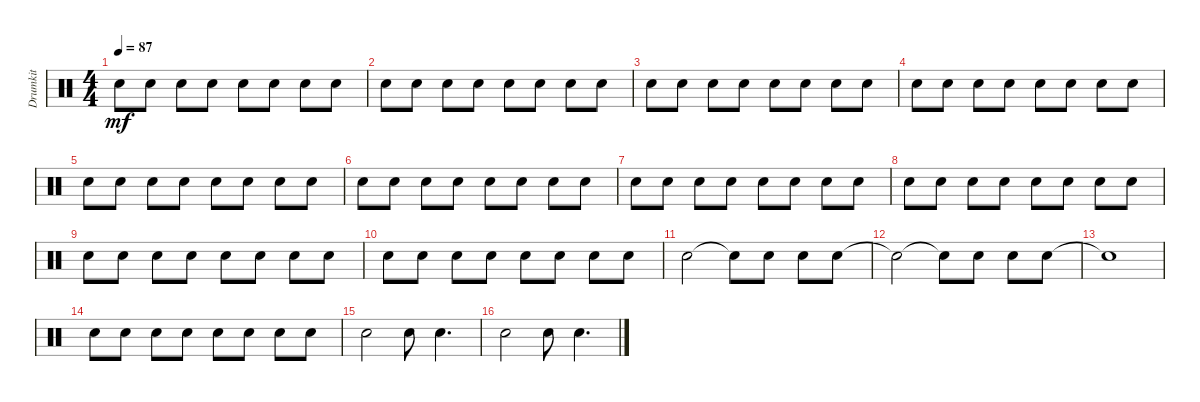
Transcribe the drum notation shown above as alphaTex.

\track ("Drumkit" "Drumkit") {instrument percussion}
\staff {score}
\articulation defaults
\ts (4 4)
\tempo 87
\clef neutral
\ks c "Snare (hit)".8{dy mf} "Snare (hit)".8 "Snare (hit)".8 "Snare (hit)".8 "Snare (hit)".8 "Snare (hit)".8 "Snare (hit)".8 "Snare (hit)".8
|
"Snare (hit)".8 "Snare (hit)".8 "Snare (hit)".8 "Snare (hit)".8 "Snare (hit)".8 "Snare (hit)".8 "Snare (hit)".8 "Snare (hit)".8 |
"Snare (hit)".8 "Snare (hit)".8 "Snare (hit)".8 "Snare (hit)".8 "Snare (hit)".8 "Snare (hit)".8 "Snare (hit)".8 "Snare (hit)".8 |
"Snare (hit)".8 "Snare (hit)".8 "Snare (hit)".8 "Snare (hit)".8 "Snare (hit)".8 "Snare (hit)".8 "Snare (hit)".8 "Snare (hit)".8 |
"Snare (hit)".8 "Snare (hit)".8 "Snare (hit)".8 "Snare (hit)".8 "Snare (hit)".8 "Snare (hit)".8 "Snare (hit)".8 "Snare (hit)".8 |
"Snare (hit)".8 "Snare (hit)".8 "Snare (hit)".8 "Snare (hit)".8 "Snare (hit)".8 "Snare (hit)".8 "Snare (hit)".8 "Snare (hit)".8 |
"Snare (hit)".8 "Snare (hit)".8 "Snare (hit)".8 "Snare (hit)".8 "Snare (hit)".8 "Snare (hit)".8 "Snare (hit)".8 "Snare (hit)".8 |
"Snare (hit)".8 "Snare (hit)".8 "Snare (hit)".8 "Snare (hit)".8 "Snare (hit)".8 "Snare (hit)".8 "Snare (hit)".8 "Snare (hit)".8 |
"Snare (hit)".8 "Snare (hit)".8 "Snare (hit)".8 "Snare (hit)".8 "Snare (hit)".8 "Snare (hit)".8 "Snare (hit)".8 "Snare (hit)".8 |
"Snare (hit)".8 "Snare (hit)".8 "Snare (hit)".8 "Snare (hit)".8 "Snare (hit)".8 "Snare (hit)".8 "Snare (hit)".8 "Snare (hit)".8 |
"Snare (hit)".2 "Snare (hit)"{t}.8 "Snare (hit)".8 "Snare (hit)".8 "Snare (hit)".8 |
"Snare (hit)"{t}.2 "Snare (hit)"{t}.8 "Snare (hit)".8 "Snare (hit)".8 "Snare (hit)".8 |
"Snare (hit)"{t}.1 |
"Snare (hit)".8 "Snare (hit)".8 "Snare (hit)".8 "Snare (hit)".8 "Snare (hit)".8 "Snare (hit)".8 "Snare (hit)".8 "Snare (hit)".8 |
"Snare (hit)".2 "Snare (hit)".8 "Snare (hit)".4{d} |
"Snare (hit)".2 "Snare (hit)".8 "Snare (hit)".4{d}
